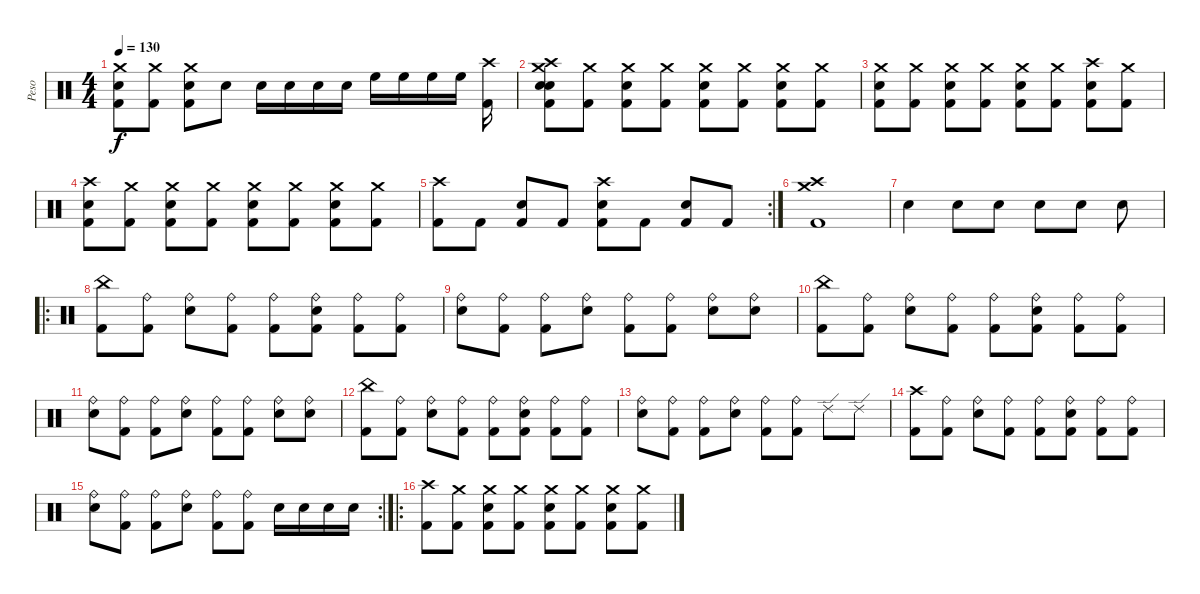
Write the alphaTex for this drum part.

\track ("Peso" "Peso") {instrument percussion}
\staff {score}
\articulation defaults
\ts (4 4)
\tempo 130
\clef neutral
\ks c
("Crash medium (hit)" "Snare (hit) 2" "Kick (hit) 2").8{dy f} ("Crash medium (hit)" "Kick (hit) 2").8 ("Crash medium (hit)" "Snare (hit) 2" "Kick (hit) 2").8 "Snare (hit) 2".8 "Snare (hit) 2".16 "Snare (hit) 2".16 "Snare (hit) 2".16 "Snare (hit) 2".16 "High Floor Tom (hit)".16 "High Floor Tom (hit)".16 "High Floor Tom (hit)".16 "High Floor Tom (hit)".16 ("Crash high (hit)" "Kick (hit) 2").16 |
("Crash high (hit)" "Crash medium (hit)" "Snare (hit) 2" "Kick (hit) 2" "Snare (hit)").8 ("Crash medium (hit)" "Kick (hit) 2").8 ("Crash medium (hit)" "Snare (hit) 2" "Kick (hit) 2").8 ("Crash medium (hit)" "Kick (hit) 2").8 ("Crash medium (hit)" "Snare (hit) 2" "Kick (hit) 2").8 ("Crash medium (hit)" "Kick (hit) 2").8 ("Crash medium (hit)" "Snare (hit) 2" "Kick (hit) 2").8 ("Crash medium (hit)" "Kick (hit) 2").8 |
("Crash medium (hit)" "Snare (hit) 2" "Kick (hit) 2").8 ("Crash medium (hit)" "Kick (hit) 2").8 ("Crash medium (hit)" "Snare (hit) 2" "Kick (hit) 2").8 ("Crash medium (hit)" "Kick (hit) 2").8 ("Crash medium (hit)" "Snare (hit) 2" "Kick (hit) 2").8 ("Crash medium (hit)" "Kick (hit) 2").8 ("Crash high (hit)" "Snare (hit) 2" "Kick (hit) 2").8 ("Crash medium (hit)" "Kick (hit) 2").8 |
("Crash high (hit)" "Snare (hit) 2" "Kick (hit) 2").8 ("Crash medium (hit)" "Kick (hit) 2").8 ("Crash medium (hit)" "Snare (hit) 2" "Kick (hit) 2").8 ("Crash medium (hit)" "Kick (hit) 2").8 ("Crash medium (hit)" "Snare (hit) 2" "Kick (hit) 2").8 ("Crash medium (hit)" "Kick (hit) 2").8 ("Crash medium (hit)" "Snare (hit) 2" "Kick (hit) 2").8 ("Crash medium (hit)" "Kick (hit) 2").8 |
\rc 2
("Crash high (hit)" "Kick (hit) 2").8 "Kick (hit) 2".8 ("Snare (hit) 2" "Kick (hit) 2").8 "Kick (hit) 2".8 ("Crash high (hit)" "Snare (hit) 2" "Kick (hit) 2").8 "Kick (hit) 2".8 ("Snare (hit) 2" "Kick (hit) 2").8 "Kick (hit) 2".8 |
("Crash high (hit)" "Crash medium (hit)" "Kick (hit) 2").1 |
"Snare (hit)"{x}.4 "Snare (hit) 2".8 "Snare (hit)"{x}.8 "Snare (hit)"{x}.8 "Snare (hit) 2".8 "Snare (hit) 2"{x}.8 |
\ro
("China (hit)" "Kick (hit) 2").8 ("Ride (bell)" "Kick (hit) 2").8 ("Ride (bell)" "Snare (hit) 2").8 ("Ride (bell)" "Kick (hit) 2").8 ("Ride (bell)" "Kick (hit) 2").8 ("Ride (bell)" "Snare (hit) 2" "Kick (hit) 2").8 ("Ride (bell)" "Kick (hit) 2").8 ("Ride (bell)" "Kick (hit) 2").8 |
("Ride (bell)" "Snare (hit) 2").8 ("Ride (bell)" "Kick (hit) 2").8 ("Ride (bell)" "Kick (hit) 2").8 ("Ride (bell)" "Snare (hit) 2").8 ("Ride (bell)" "Kick (hit) 2").8 ("Ride (bell)" "Kick (hit) 2").8 ("Ride (bell)" "Snare (hit) 2").8 ("Ride (bell)" "Snare (hit) 2").8 |
("China (hit)" "Kick (hit) 2").8 ("Ride (bell)" "Kick (hit) 2").8 ("Ride (bell)" "Snare (hit) 2").8 ("Ride (bell)" "Kick (hit) 2").8 ("Ride (bell)" "Kick (hit) 2").8 ("Ride (bell)" "Snare (hit) 2" "Kick (hit) 2").8 ("Ride (bell)" "Kick (hit) 2").8 ("Ride (bell)" "Kick (hit) 2").8 |
("Ride (bell)" "Snare (hit) 2").8 ("Ride (bell)" "Kick (hit) 2").8 ("Ride (bell)" "Kick (hit) 2").8 ("Ride (bell)" "Snare (hit) 2").8 ("Ride (bell)" "Kick (hit) 2").8 ("Ride (bell)" "Kick (hit) 2").8 ("Ride (bell)" "Snare (hit) 2").8 ("Ride (bell)" "Snare (hit) 2").8 |
("China (hit)" "Kick (hit) 2").8 ("Ride (bell)" "Kick (hit) 2").8 ("Ride (bell)" "Snare (hit) 2").8 ("Ride (bell)" "Kick (hit) 2").8 ("Ride (bell)" "Kick (hit) 2").8 ("Ride (bell)" "Snare (hit) 2" "Kick (hit) 2").8 ("Ride (bell)" "Kick (hit) 2").8 ("Ride (bell)" "Kick (hit) 2").8 |
("Ride (bell)" "Snare (hit) 2").8 ("Ride (bell)" "Kick (hit) 2").8 ("Ride (bell)" "Kick (hit) 2").8 ("Ride (bell)" "Snare (hit) 2").8 ("Ride (bell)" "Kick (hit) 2").8 ("Ride (bell)" "Kick (hit) 2").8 "Ride (edge) 2".8 "Ride (edge) 2".8 |
("Crash high (hit)" "Kick (hit) 2").8 ("Ride (bell)" "Kick (hit) 2").8 ("Ride (bell)" "Snare (hit) 2").8 ("Ride (bell)" "Kick (hit) 2").8 ("Ride (bell)" "Kick (hit) 2").8 ("Ride (bell)" "Snare (hit) 2" "Kick (hit) 2").8 ("Ride (bell)" "Kick (hit) 2").8 ("Ride (bell)" "Kick (hit) 2").8 |
\rc 2
("Ride (bell)" "Snare (hit) 2").8 ("Ride (bell)" "Kick (hit) 2").8 ("Ride (bell)" "Kick (hit) 2").8 ("Ride (bell)" "Snare (hit) 2").8 ("Ride (bell)" "Kick (hit) 2").8 ("Ride (bell)" "Kick (hit) 2").8 "Snare (hit) 2".16 "Snare (hit) 2".16 "Snare (hit) 2".16 "Snare (hit) 2".16 |
\ro
("Crash high (hit)" "Kick (hit) 2").8 ("Crash medium (hit)" "Kick (hit) 2").8 ("Crash medium (hit)" "Snare (hit) 2" "Kick (hit) 2").8 ("Crash medium (hit)" "Kick (hit) 2").8 ("Crash medium (hit)" "Snare (hit) 2" "Kick (hit) 2").8 ("Crash medium (hit)" "Kick (hit) 2").8 ("Crash medium (hit)" "Snare (hit) 2" "Kick (hit) 2").8 ("Crash medium (hit)" "Kick (hit) 2").8
